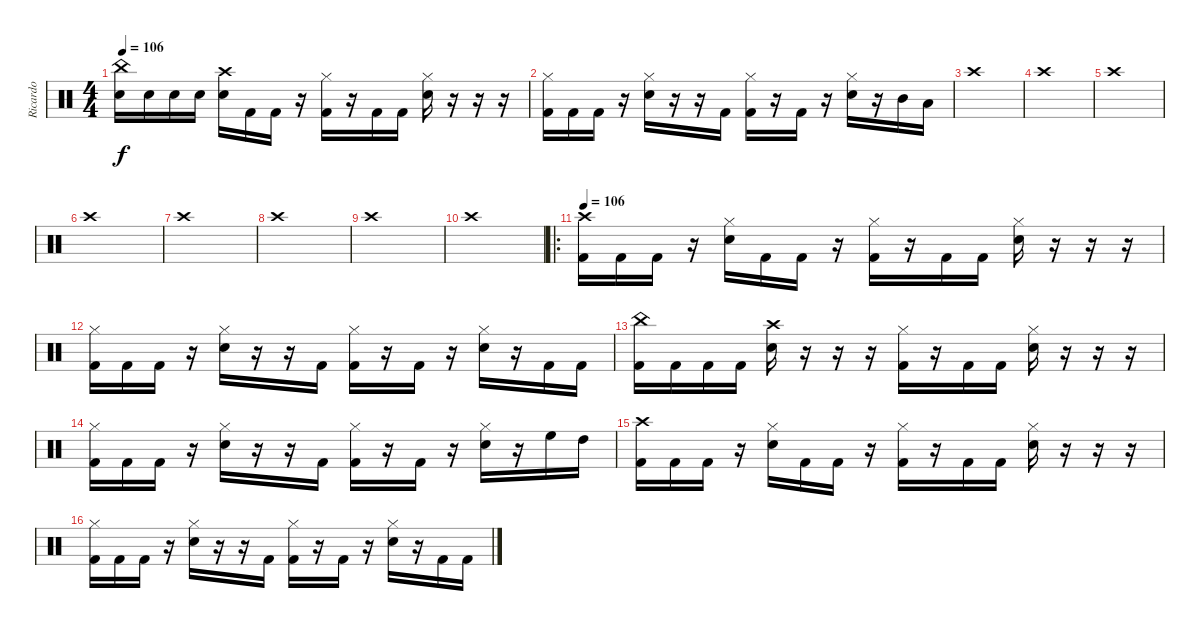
\track ("Ricardo" "Ricardo") {instrument percussion}
\staff {score}
\articulation defaults
\ts (4 4)
\tempo 106
\clef neutral
\ks c
("China (hit)" "Electric Snare (hit)").16{dy f} "Electric Snare (hit)".16 "Electric Snare (hit)".16 "Electric Snare (hit)".16 ("Crash high (hit)" "Electric Snare (hit)").16 "Kick (hit) 2".16 "Kick (hit) 2".16 r.16 ("Hi-Hat (closed)" "Kick (hit) 2").16 r.16 "Kick (hit) 2".16 "Kick (hit) 2".16 ("Hi-Hat (closed)" "Electric Snare (hit)").16 r.16 r.16 r.16 |
("Hi-Hat (closed)" "Kick (hit) 2").16 "Kick (hit) 2".16 "Kick (hit) 2".16 r.16 ("Hi-Hat (closed)" "Electric Snare (hit)").16 r.16 r.16 "Kick (hit) 2".16 ("Hi-Hat (closed)" "Kick (hit) 2").16 r.16 "Kick (hit) 2".16 r.16 ("Hi-Hat (closed)" "Electric Snare (hit)").16 r.16 "Mid Tom (hit)".16 "Low Tom (hit)".16 |
"Crash high (hit)".1 |
"Crash high (hit)".1 |
"Crash high (hit)".1 |
"Crash high (hit)".1 |
"Crash high (hit)".1 |
"Crash high (hit)".1 |
"Crash high (hit)".1 |
"Crash high (hit)".1 |
\ro
\tempo 106
("Crash high (hit)" "Kick (hit) 2").16 "Kick (hit) 2".16 "Kick (hit) 2".16 r.16 ("Hi-Hat (closed)" "Electric Snare (hit)").16 "Kick (hit) 2".16 "Kick (hit) 2".16 r.16 ("Hi-Hat (closed)" "Kick (hit) 2").16 r.16 "Kick (hit) 2".16 "Kick (hit) 2".16 ("Hi-Hat (closed)" "Electric Snare (hit)").16 r.16 r.16 r.16 |
("Hi-Hat (closed)" "Kick (hit) 2").16 "Kick (hit) 2".16 "Kick (hit) 2".16 r.16 ("Hi-Hat (closed)" "Electric Snare (hit)").16 r.16 r.16 "Kick (hit) 2".16 ("Hi-Hat (closed)" "Kick (hit) 2").16 r.16 "Kick (hit) 2".16 r.16 ("Hi-Hat (closed)" "Electric Snare (hit)").16 r.16 "Kick (hit) 2".16 "Kick (hit) 2".16 |
("China (hit)" "Kick (hit) 2").16 "Kick (hit) 2".16 "Kick (hit) 2".16 "Kick (hit) 2".16 ("Crash high (hit)" "Electric Snare (hit)").16 r.16 r.16 r.16 ("Hi-Hat (closed)" "Kick (hit) 2").16 r.16 "Kick (hit) 2".16 "Kick (hit) 2".16 ("Hi-Hat (closed)" "Electric Snare (hit)").16 r.16 r.16 r.16 |
("Hi-Hat (closed)" "Kick (hit) 2").16 "Kick (hit) 2".16 "Kick (hit) 2".16 r.16 ("Hi-Hat (closed)" "Electric Snare (hit)").16 r.16 r.16 "Kick (hit) 2".16 ("Hi-Hat (closed)" "Kick (hit) 2").16 r.16 "Kick (hit) 2".16 r.16 ("Hi-Hat (closed)" "Electric Snare (hit)").16 r.16 "High Floor Tom (hit)".16 "High Tom (hit)".16 |
("Crash high (hit)" "Kick (hit) 2").16 "Kick (hit) 2".16 "Kick (hit) 2".16 r.16 ("Hi-Hat (closed)" "Electric Snare (hit)").16 "Kick (hit) 2".16 "Kick (hit) 2".16 r.16 ("Hi-Hat (closed)" "Kick (hit) 2").16 r.16 "Kick (hit) 2".16 "Kick (hit) 2".16 ("Hi-Hat (closed)" "Electric Snare (hit)").16 r.16 r.16 r.16 |
("Hi-Hat (closed)" "Kick (hit) 2").16 "Kick (hit) 2".16 "Kick (hit) 2".16 r.16 ("Hi-Hat (closed)" "Electric Snare (hit)").16 r.16 r.16 "Kick (hit) 2".16 ("Hi-Hat (closed)" "Kick (hit) 2").16 r.16 "Kick (hit) 2".16 r.16 ("Hi-Hat (closed)" "Electric Snare (hit)").16 r.16 "Kick (hit) 2".16 "Kick (hit) 2".16
